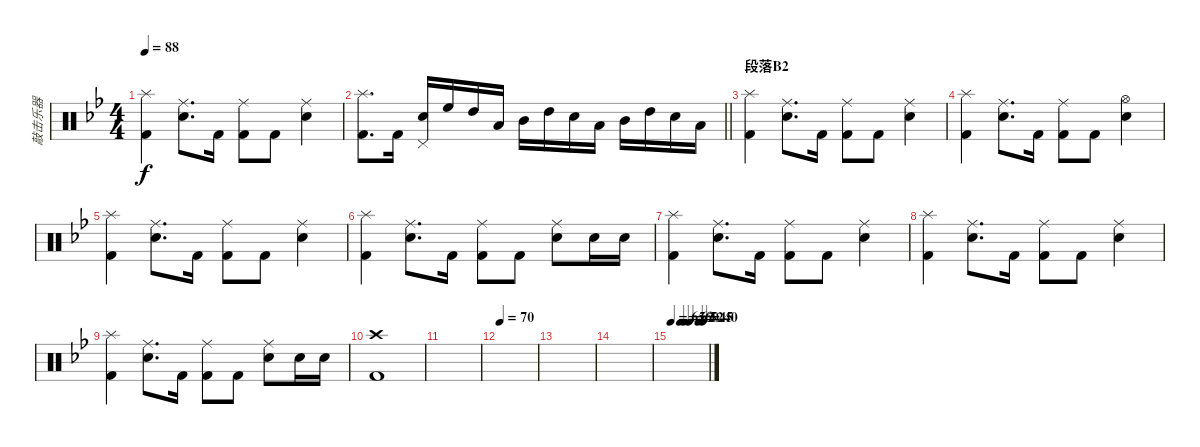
\track ("敲击乐器" "敲击乐器") {instrument percussion}
\staff {score}
\articulation defaults
\ts (4 4)
\tempo 88
\clef neutral
\ks bb
("Splash (hit)" "Kick (hit) 2").4{dy f} ("Ride (middle)" "Snare (hit) 2").8{d} "Kick (hit) 2".16 ("Ride (middle)" "Kick (hit) 2").8 "Kick (hit) 2".8 ("Ride (middle)" "Snare (hit) 2").4 |
\barLineRight lightlight
("Splash (hit)" "Kick (hit) 2").8{d} "Kick (hit) 2".16 ("Pedal Hi-Hat (hit)" "Snare (hit) 2").16 "High Floor Tom (hit)".16 "High Tom (hit)".16 "Low Tom (hit)".16 "Mid Tom (hit)".16 "High Tom (hit)".16 "Snare (hit) 2".16 "Low Tom (hit)".16 "Mid Tom (hit)".16 "High Tom (hit)".16 "Snare (hit) 2".16 "Low Tom (hit)".16 |
\section ("" "段落B2")
("Splash (hit)" "Kick (hit) 2").4 ("Ride (middle)" "Snare (hit) 2").8{d} "Kick (hit) 2".16 ("Ride (middle)" "Kick (hit) 2").8 "Kick (hit) 2".8 ("Ride (middle)" "Snare (hit) 2").4 |
("Splash (hit)" "Kick (hit) 2").4 ("Ride (middle)" "Snare (hit) 2").8{d} "Kick (hit) 2".16 ("Ride (middle)" "Kick (hit) 2").8 "Kick (hit) 2".8 ("Hi-Hat (open)" "Snare (hit) 2").4 |
("Splash (hit)" "Kick (hit) 2").4 ("Ride (middle)" "Snare (hit) 2").8{d} "Kick (hit) 2".16 ("Ride (middle)" "Kick (hit) 2").8 "Kick (hit) 2".8 ("Ride (middle)" "Snare (hit) 2").4 |
("Splash (hit)" "Kick (hit) 2").4 ("Ride (middle)" "Snare (hit) 2").8{d} "Kick (hit) 2".16 ("Ride (middle)" "Kick (hit) 2").8 "Kick (hit) 2".8 ("Ride (middle)" "Snare (hit) 2").8 "Snare (hit) 2".16 "Snare (hit) 2".16 |
("Splash (hit)" "Kick (hit) 2").4 ("Ride (middle)" "Snare (hit) 2").8{d} "Kick (hit) 2".16 ("Ride (middle)" "Kick (hit) 2").8 "Kick (hit) 2".8 ("Ride (middle)" "Snare (hit) 2").4 |
("Splash (hit)" "Kick (hit) 2").4 ("Ride (middle)" "Snare (hit) 2").8{d} "Kick (hit) 2".16 ("Ride (middle)" "Kick (hit) 2").8 "Kick (hit) 2".8 ("Ride (middle)" "Snare (hit) 2").4 |
("Splash (hit)" "Kick (hit) 2").4 ("Ride (middle)" "Snare (hit) 2").8{d} "Kick (hit) 2".16 ("Ride (middle)" "Kick (hit) 2").8 "Kick (hit) 2".8 ("Ride (middle)" "Snare (hit) 2").8 "Snare (hit) 2".16 "Snare (hit) 2".16 |
("Crash high (hit)" "Kick (hit) 2").1 |
|
\tempo 70
|
|
|
\tempo 65
\tempo (62 0.25)
\tempo (60 0.375)
\tempo (52 0.5)
\tempo (45 0.75)
\tempo (40 0.875)
